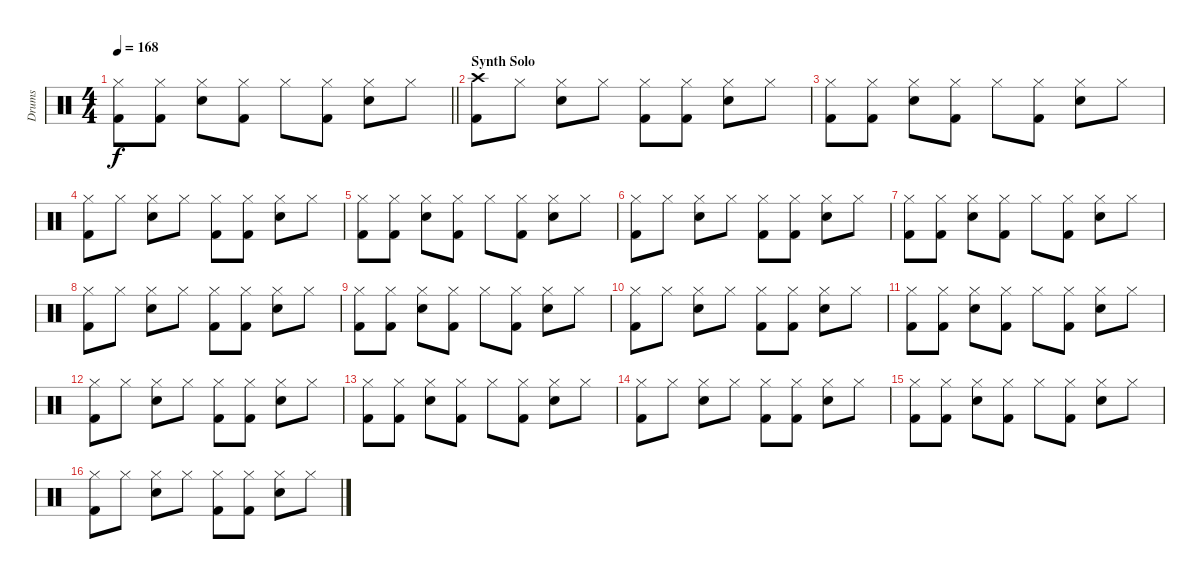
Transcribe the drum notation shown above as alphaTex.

\track ("Drums" "Drums") {instrument percussion}
\staff {score}
\articulation defaults
\ts (4 4)
\tempo 168
\clef neutral
\barLineRight lightlight
\ks c
("Hi-Hat (closed)" "Kick (hit) 2").8{dy f} ("Hi-Hat (closed)" "Kick (hit) 2").8 ("Hi-Hat (closed)" "Electric Snare (hit)").8 ("Hi-Hat (closed)" "Kick (hit) 2").8 "Hi-Hat (closed)".8 ("Hi-Hat (closed)" "Kick (hit) 2").8 ("Hi-Hat (closed)" "Electric Snare (hit)").8 "Hi-Hat (closed)".8 |
\section ("" "Synth Solo")
("Crash high (hit)" "Kick (hit) 2").8 "Hi-Hat (closed)".8 ("Hi-Hat (closed)" "Electric Snare (hit)").8 "Hi-Hat (closed)".8 ("Hi-Hat (closed)" "Kick (hit) 2").8 ("Hi-Hat (closed)" "Kick (hit) 2").8 ("Hi-Hat (closed)" "Electric Snare (hit)").8 "Hi-Hat (closed)".8 |
("Hi-Hat (closed)" "Kick (hit) 2").8 ("Hi-Hat (closed)" "Kick (hit) 2").8 ("Hi-Hat (closed)" "Electric Snare (hit)").8 ("Hi-Hat (closed)" "Kick (hit) 2").8 "Hi-Hat (closed)".8 ("Hi-Hat (closed)" "Kick (hit) 2").8 ("Hi-Hat (closed)" "Electric Snare (hit)").8 "Hi-Hat (closed)".8 |
("Hi-Hat (closed)" "Kick (hit) 2").8 "Hi-Hat (closed)".8 ("Hi-Hat (closed)" "Electric Snare (hit)").8 "Hi-Hat (closed)".8 ("Hi-Hat (closed)" "Kick (hit) 2").8 ("Hi-Hat (closed)" "Kick (hit) 2").8 ("Hi-Hat (closed)" "Electric Snare (hit)").8 "Hi-Hat (closed)".8 |
("Hi-Hat (closed)" "Kick (hit) 2").8 ("Hi-Hat (closed)" "Kick (hit) 2").8 ("Hi-Hat (closed)" "Electric Snare (hit)").8 ("Hi-Hat (closed)" "Kick (hit) 2").8 "Hi-Hat (closed)".8 ("Hi-Hat (closed)" "Kick (hit) 2").8 ("Hi-Hat (closed)" "Electric Snare (hit)").8 "Hi-Hat (closed)".8 |
("Hi-Hat (closed)" "Kick (hit) 2").8 "Hi-Hat (closed)".8 ("Hi-Hat (closed)" "Electric Snare (hit)").8 "Hi-Hat (closed)".8 ("Hi-Hat (closed)" "Kick (hit) 2").8 ("Hi-Hat (closed)" "Kick (hit) 2").8 ("Hi-Hat (closed)" "Electric Snare (hit)").8 "Hi-Hat (closed)".8 |
("Hi-Hat (closed)" "Kick (hit) 2").8 ("Hi-Hat (closed)" "Kick (hit) 2").8 ("Hi-Hat (closed)" "Electric Snare (hit)").8 ("Hi-Hat (closed)" "Kick (hit) 2").8 "Hi-Hat (closed)".8 ("Hi-Hat (closed)" "Kick (hit) 2").8 ("Hi-Hat (closed)" "Electric Snare (hit)").8 "Hi-Hat (closed)".8 |
("Hi-Hat (closed)" "Kick (hit) 2").8 "Hi-Hat (closed)".8 ("Hi-Hat (closed)" "Electric Snare (hit)").8 "Hi-Hat (closed)".8 ("Hi-Hat (closed)" "Kick (hit) 2").8 ("Hi-Hat (closed)" "Kick (hit) 2").8 ("Hi-Hat (closed)" "Electric Snare (hit)").8 "Hi-Hat (closed)".8 |
("Hi-Hat (closed)" "Kick (hit) 2").8 ("Hi-Hat (closed)" "Kick (hit) 2").8 ("Hi-Hat (closed)" "Electric Snare (hit)").8 ("Hi-Hat (closed)" "Kick (hit) 2").8 "Hi-Hat (closed)".8 ("Hi-Hat (closed)" "Kick (hit) 2").8 ("Hi-Hat (closed)" "Electric Snare (hit)").8 "Hi-Hat (closed)".8 |
("Hi-Hat (closed)" "Kick (hit) 2").8 "Hi-Hat (closed)".8 ("Hi-Hat (closed)" "Electric Snare (hit)").8 "Hi-Hat (closed)".8 ("Hi-Hat (closed)" "Kick (hit) 2").8 ("Hi-Hat (closed)" "Kick (hit) 2").8 ("Hi-Hat (closed)" "Electric Snare (hit)").8 "Hi-Hat (closed)".8 |
("Hi-Hat (closed)" "Kick (hit) 2").8 ("Hi-Hat (closed)" "Kick (hit) 2").8 ("Hi-Hat (closed)" "Electric Snare (hit)").8 ("Hi-Hat (closed)" "Kick (hit) 2").8 "Hi-Hat (closed)".8 ("Hi-Hat (closed)" "Kick (hit) 2").8 ("Hi-Hat (closed)" "Electric Snare (hit)").8 "Hi-Hat (closed)".8 |
("Hi-Hat (closed)" "Kick (hit) 2").8 "Hi-Hat (closed)".8 ("Hi-Hat (closed)" "Electric Snare (hit)").8 "Hi-Hat (closed)".8 ("Hi-Hat (closed)" "Kick (hit) 2").8 ("Hi-Hat (closed)" "Kick (hit) 2").8 ("Hi-Hat (closed)" "Electric Snare (hit)").8 "Hi-Hat (closed)".8 |
("Hi-Hat (closed)" "Kick (hit) 2").8 ("Hi-Hat (closed)" "Kick (hit) 2").8 ("Hi-Hat (closed)" "Electric Snare (hit)").8 ("Hi-Hat (closed)" "Kick (hit) 2").8 "Hi-Hat (closed)".8 ("Hi-Hat (closed)" "Kick (hit) 2").8 ("Hi-Hat (closed)" "Electric Snare (hit)").8 "Hi-Hat (closed)".8 |
("Hi-Hat (closed)" "Kick (hit) 2").8 "Hi-Hat (closed)".8 ("Hi-Hat (closed)" "Electric Snare (hit)").8 "Hi-Hat (closed)".8 ("Hi-Hat (closed)" "Kick (hit) 2").8 ("Hi-Hat (closed)" "Kick (hit) 2").8 ("Hi-Hat (closed)" "Electric Snare (hit)").8 "Hi-Hat (closed)".8 |
("Hi-Hat (closed)" "Kick (hit) 2").8 ("Hi-Hat (closed)" "Kick (hit) 2").8 ("Hi-Hat (closed)" "Electric Snare (hit)").8 ("Hi-Hat (closed)" "Kick (hit) 2").8 "Hi-Hat (closed)".8 ("Hi-Hat (closed)" "Kick (hit) 2").8 ("Hi-Hat (closed)" "Electric Snare (hit)").8 "Hi-Hat (closed)".8 |
("Hi-Hat (closed)" "Kick (hit) 2").8 "Hi-Hat (closed)".8 ("Hi-Hat (closed)" "Electric Snare (hit)").8 "Hi-Hat (closed)".8 ("Hi-Hat (closed)" "Kick (hit) 2").8 ("Hi-Hat (closed)" "Kick (hit) 2").8 ("Hi-Hat (closed)" "Electric Snare (hit)").8 "Hi-Hat (closed)".8
